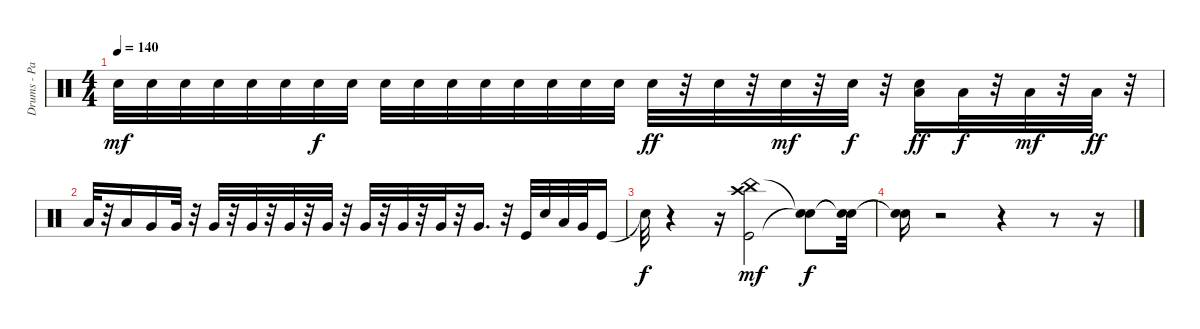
\track ("Drums - Paice" "Drums - Pa") {instrument percussion}
\staff {score}
\articulation defaults
\ts (4 4)
\tempo 140
\clef neutral
\ks c "Snare (hit) 2".32{dy mf} "Snare (hit) 2".32 "Snare (hit) 2".32 "Snare (hit) 2".32 "Snare (hit) 2".32 "Snare (hit) 2".32 "Snare (hit) 2".32{dy f} "Snare (hit) 2".32 "Snare (hit) 2".32 "Snare (hit) 2".32 "Snare (hit) 2".32 "Snare (hit) 2".32 "Snare (hit) 2".32 "Snare (hit) 2".32 "Snare (hit) 2".32 "Snare (hit) 2".32 "Snare (hit) 2".32{dy ff}
r.32 "Snare (hit) 2".32 r.32 "Snare (hit) 2".32{dy mf} r.32 "Snare (hit) 2".32{dy f} r.32 ("Low Tom (hit)" "Snare (hit) 2").16{dy ff} "Low Tom (hit)".32{dy f} r.32 "Low Tom (hit)".32{dy mf} r.32 "Low Tom (hit)".32{dy ff} r.32 |
"Low Tom (hit)".32 r.32 "Low Tom (hit)".16 "Very Low Tom (hit)".16 "Very Low Tom (hit)".32 r.32 "Very Low Tom (hit)".32 r.32 "Very Low Tom (hit)".32 r.32 "Very Low Tom (hit)".32 r.32 "Very Low Tom (hit)".32 r.32 "Very Low Tom (hit)".32 r.32 "Very Low Tom (hit)".32 r.32 "Very Low Tom (hit)".32 r.32 "Very Low Tom (hit)".16{d} r.32 "Kick (hit)".32 "Snare (hit) 2".32 "Low Tom (hit)".32 "Very Low Tom (hit)".32 "Kick (hit)".16 |
"Snare (hit)"{t}.32{dy f} r.4 r.16 ("Kick (hit)" "China (hit)" "Crash high (hit)").2{dy mf} ("Snare (hit)"{t} "Snare (hit)"{t}).8{dy f} ("Snare (hit)"{t} "Snare (hit)"{t}).32 |
("Snare (hit)"{t} "Snare (hit)"{t}).16 r.2 r.4 r.8 r.16
